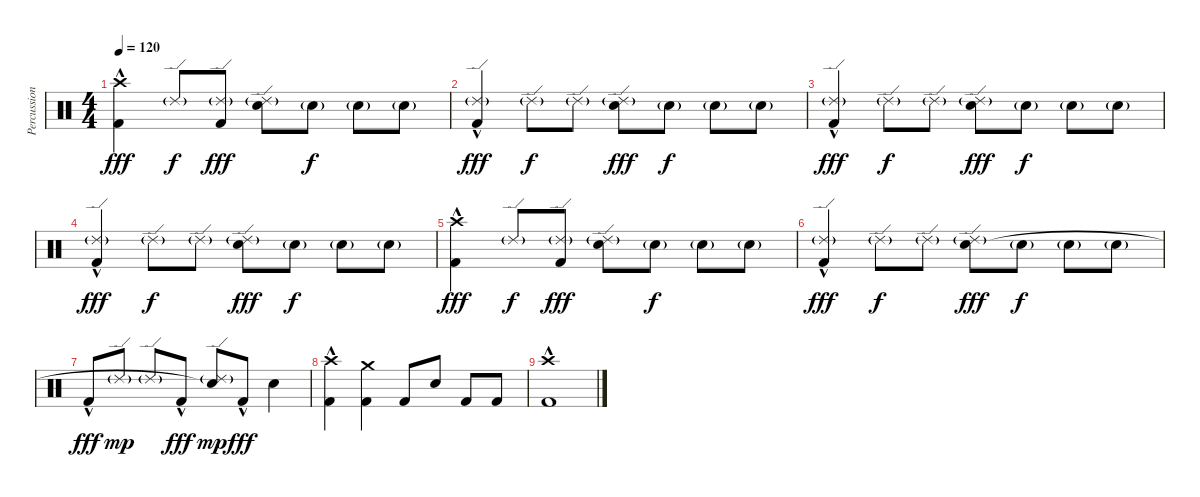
\track ("Percussion" "Percussion") {instrument percussion}
\staff {score}
\articulation defaults
\ts (4 4)
\tempo 120
\clef neutral
\ks c
("Crash high (hit)" "Kick (hit) 2"{hac}).4{dy fff volume 16} "Ride (edge) 2"{g}.8{dy f} ("Ride (edge) 2"{g} "Kick (hit) 2").8{dy fff} ("Ride (edge) 2"{g} "Electric Snare (hit)").8 "Electric Snare (hit)"{g}.8{dy f} "Electric Snare (hit)"{g}.8 "Electric Snare (hit)"{g}.8 |
("Ride (edge) 2"{g} "Kick (hit) 2"{hac}).4{dy fff} "Ride (edge) 2"{g}.8{dy f} "Ride (edge) 2"{g}.8 ("Ride (edge) 2"{g} "Electric Snare (hit)").8{dy fff} "Electric Snare (hit)"{g}.8{dy f} "Electric Snare (hit)"{g}.8 "Electric Snare (hit)"{g}.8 |
("Ride (edge) 2"{g} "Kick (hit) 2"{hac}).4{dy fff} "Ride (edge) 2"{g}.8{dy f} "Ride (edge) 2"{g}.8 ("Ride (edge) 2"{g} "Electric Snare (hit)").8{dy fff} "Electric Snare (hit)"{g}.8{dy f} "Electric Snare (hit)"{g}.8 "Electric Snare (hit)"{g}.8 |
("Ride (edge) 2"{g} "Kick (hit) 2"{hac}).4{dy fff} "Ride (edge) 2"{g}.8{dy f} "Ride (edge) 2"{g}.8 ("Ride (edge) 2"{g} "Electric Snare (hit)").8{dy fff} "Electric Snare (hit)"{g}.8{dy f} "Electric Snare (hit)"{g}.8 "Electric Snare (hit)"{g}.8 |
("Crash high (hit)" "Kick (hit) 2"{hac}).4{dy fff} "Ride (edge) 2"{g}.8{dy f} ("Ride (edge) 2"{g} "Kick (hit) 2").8{dy fff} ("Ride (edge) 2"{g} "Electric Snare (hit)").8 "Electric Snare (hit)"{g}.8{dy f} "Electric Snare (hit)"{g}.8 "Electric Snare (hit)"{g}.8 |
("Ride (edge) 2"{g} "Kick (hit) 2"{hac}).4{dy fff} "Ride (edge) 2"{g}.8{dy f} "Ride (edge) 2"{g}.8 ("Ride (edge) 2"{g} "Electric Snare (hit)").8{dy fff} "Electric Snare (hit)"{g}.8{dy f} "Electric Snare (hit)"{g}.8 "Electric Snare (hit)"{g}.8 |
"Kick (hit) 2"{hac}.8{dy fff volume 16} "Ride (edge) 2"{g}.8{dy mp} "Ride (edge) 2"{g}.8 "Kick (hit) 2"{hac}.8{dy fff} ("Ride (edge) 2"{g} "Snare (hit)"{t}).8{dy mp} "Kick (hit) 2"{hac}.8{dy fff} "Electric Snare (hit)".4 |
("Crash high (hit)" "Kick (hit) 2"{hac}).4 ("Crash medium (hit)" "Kick (hit) 2").4 "Kick (hit) 2".8 "Electric Snare (hit)".8 "Kick (hit) 2".8 "Kick (hit) 2".8 |
("Crash high (hit)" "Kick (hit) 2"{hac}).1
